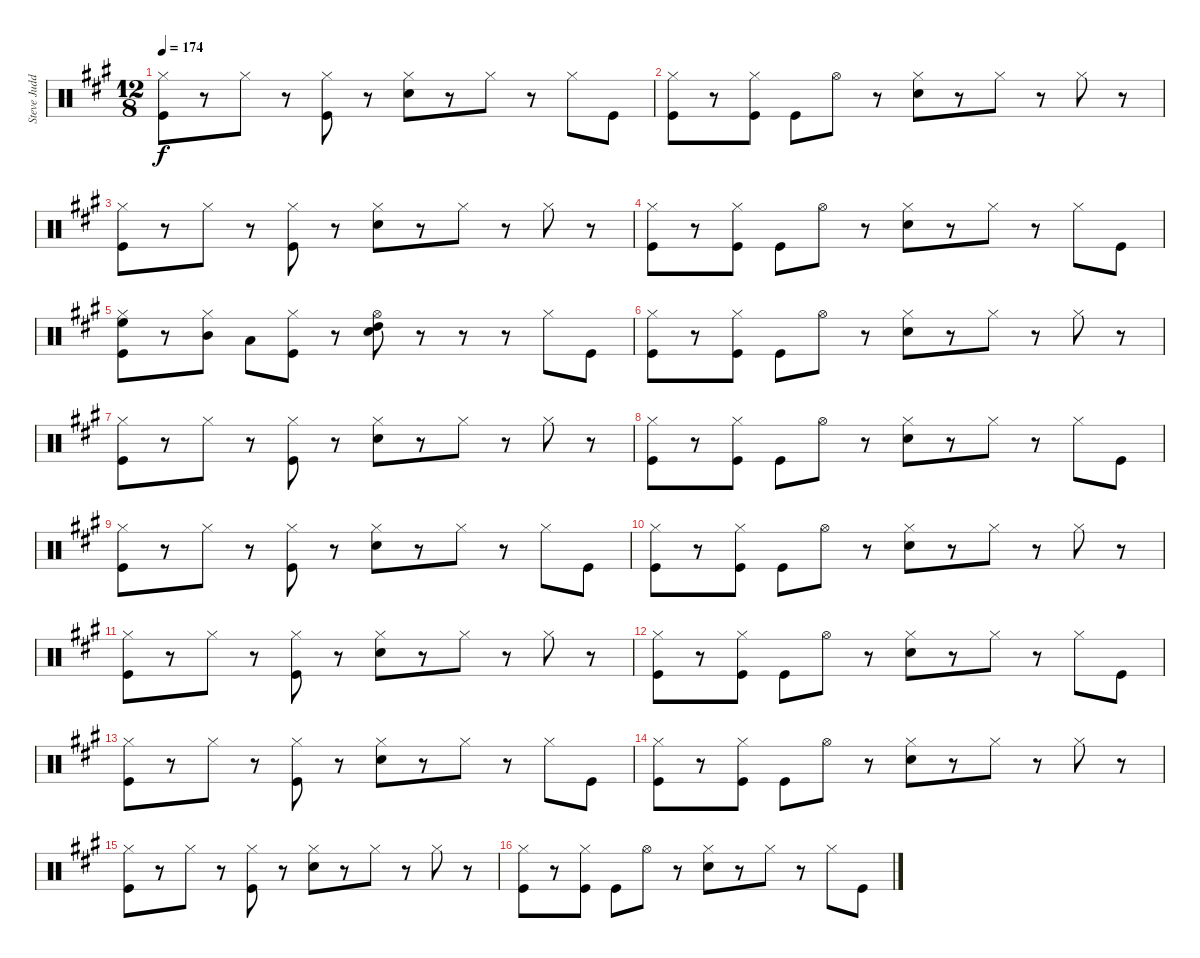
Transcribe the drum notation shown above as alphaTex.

\track ("Steve Judd (Drums)" "Steve Judd") {instrument percussion}
\staff {score}
\articulation defaults
\ts (12 8)
\tempo 174
\clef neutral
\ks a
("Hi-Hat (closed)" "Kick (hit)").8{dy f} r.8 "Hi-Hat (closed)".8 r.8 ("Hi-Hat (closed)" "Kick (hit)").8 r.8 ("Snare (hit) 2" "Hi-Hat (closed)").8 r.8 "Hi-Hat (closed)".8 r.8 "Hi-Hat (closed)".8 "Kick (hit)".8 |
("Hi-Hat (closed)" "Kick (hit)").8 r.8 ("Hi-Hat (closed)" "Kick (hit)").8 "Kick (hit)".8 "Hi-Hat (open)".8 r.8 ("Snare (hit) 2" "Hi-Hat (closed)").8 r.8 "Hi-Hat (closed)".8 r.8 "Hi-Hat (closed)".8 r.8 |
("Hi-Hat (closed)" "Kick (hit)").8 r.8 "Hi-Hat (closed)".8 r.8 ("Hi-Hat (closed)" "Kick (hit)").8 r.8 ("Snare (hit) 2" "Hi-Hat (closed)").8 r.8 "Hi-Hat (closed)".8 r.8 "Hi-Hat (closed)".8 r.8 |
("Hi-Hat (closed)" "Kick (hit)").8 r.8 ("Hi-Hat (closed)" "Kick (hit)").8 "Kick (hit)".8 "Hi-Hat (open)".8 r.8 ("Snare (hit) 2" "Hi-Hat (closed)").8 r.8 "Hi-Hat (closed)".8 r.8 "Hi-Hat (closed)".8 "Kick (hit)".8 |
("High Floor Tom (hit)" "Hi-Hat (closed)" "Kick (hit)").8 r.8 ("Mid Tom (hit)" "Hi-Hat (closed)").8 "Low Tom (hit)".8 ("Hi-Hat (closed)" "Kick (hit)").8 r.8 ("High Tom (hit)" "Snare (hit) 2" "Hi-Hat (open)").8 r.8 r.8 r.8 "Hi-Hat (closed)".8 "Kick (hit)".8 |
("Hi-Hat (closed)" "Kick (hit)").8 r.8 ("Hi-Hat (closed)" "Kick (hit)").8 "Kick (hit)".8 "Hi-Hat (open)".8 r.8 ("Snare (hit) 2" "Hi-Hat (closed)").8 r.8 "Hi-Hat (closed)".8 r.8 "Hi-Hat (closed)".8 r.8 |
("Hi-Hat (closed)" "Kick (hit)").8 r.8 "Hi-Hat (closed)".8 r.8 ("Hi-Hat (closed)" "Kick (hit)").8 r.8 ("Snare (hit) 2" "Hi-Hat (closed)").8 r.8 "Hi-Hat (closed)".8 r.8 "Hi-Hat (closed)".8 r.8 |
("Hi-Hat (closed)" "Kick (hit)").8 r.8 ("Hi-Hat (closed)" "Kick (hit)").8 "Kick (hit)".8 "Hi-Hat (open)".8 r.8 ("Snare (hit) 2" "Hi-Hat (closed)").8 r.8 "Hi-Hat (closed)".8 r.8 "Hi-Hat (closed)".8 "Kick (hit)".8 |
("Hi-Hat (closed)" "Kick (hit)").8 r.8 "Hi-Hat (closed)".8 r.8 ("Hi-Hat (closed)" "Kick (hit)").8 r.8 ("Snare (hit) 2" "Hi-Hat (closed)").8 r.8 "Hi-Hat (closed)".8 r.8 "Hi-Hat (closed)".8 "Kick (hit)".8 |
("Hi-Hat (closed)" "Kick (hit)").8 r.8 ("Hi-Hat (closed)" "Kick (hit)").8 "Kick (hit)".8 "Hi-Hat (open)".8 r.8 ("Snare (hit) 2" "Hi-Hat (closed)").8 r.8 "Hi-Hat (closed)".8 r.8 "Hi-Hat (closed)".8 r.8 |
("Hi-Hat (closed)" "Kick (hit)").8 r.8 "Hi-Hat (closed)".8 r.8 ("Hi-Hat (closed)" "Kick (hit)").8 r.8 ("Snare (hit) 2" "Hi-Hat (closed)").8 r.8 "Hi-Hat (closed)".8 r.8 "Hi-Hat (closed)".8 r.8 |
("Hi-Hat (closed)" "Kick (hit)").8 r.8 ("Hi-Hat (closed)" "Kick (hit)").8 "Kick (hit)".8 "Hi-Hat (open)".8 r.8 ("Snare (hit) 2" "Hi-Hat (closed)").8 r.8 "Hi-Hat (closed)".8 r.8 "Hi-Hat (closed)".8 "Kick (hit)".8 |
("Hi-Hat (closed)" "Kick (hit)").8 r.8 "Hi-Hat (closed)".8 r.8 ("Hi-Hat (closed)" "Kick (hit)").8 r.8 ("Snare (hit) 2" "Hi-Hat (closed)").8 r.8 "Hi-Hat (closed)".8 r.8 "Hi-Hat (closed)".8 "Kick (hit)".8 |
("Hi-Hat (closed)" "Kick (hit)").8 r.8 ("Hi-Hat (closed)" "Kick (hit)").8 "Kick (hit)".8 "Hi-Hat (open)".8 r.8 ("Snare (hit) 2" "Hi-Hat (closed)").8 r.8 "Hi-Hat (closed)".8 r.8 "Hi-Hat (closed)".8 r.8 |
("Hi-Hat (closed)" "Kick (hit)").8 r.8 "Hi-Hat (closed)".8 r.8 ("Hi-Hat (closed)" "Kick (hit)").8 r.8 ("Snare (hit) 2" "Hi-Hat (closed)").8 r.8 "Hi-Hat (closed)".8 r.8 "Hi-Hat (closed)".8 r.8 |
("Hi-Hat (closed)" "Kick (hit)").8 r.8 ("Hi-Hat (closed)" "Kick (hit)").8 "Kick (hit)".8 "Hi-Hat (open)".8 r.8 ("Snare (hit) 2" "Hi-Hat (closed)").8 r.8 "Hi-Hat (closed)".8 r.8 "Hi-Hat (closed)".8 "Kick (hit)".8
